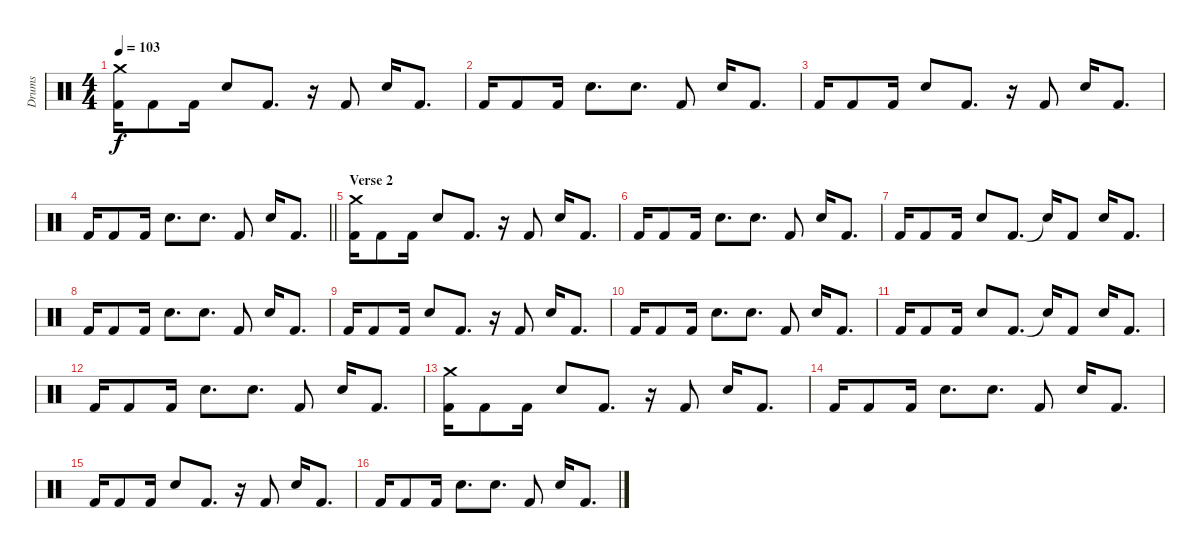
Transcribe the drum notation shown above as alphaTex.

\track ("Drums" "Drums") {instrument percussion}
\staff {score}
\articulation defaults
\ts (4 4)
\tempo 103
\clef neutral
\ks c
("Kick (hit) 2" "Crash medium (hit)").16{dy f} "Kick (hit) 2".8 "Kick (hit) 2".16 "Electric Snare (hit)".8 "Kick (hit) 2".8{d} r.16 "Kick (hit) 2".8 "Electric Snare (hit)".16 "Kick (hit) 2".8{d} |
"Kick (hit) 2".16 "Kick (hit) 2".8 "Kick (hit) 2".16 "Electric Snare (hit)".8{d} "Electric Snare (hit)".8{d} "Kick (hit) 2".8 "Electric Snare (hit)".16 "Kick (hit) 2".8{d} |
"Kick (hit) 2".16 "Kick (hit) 2".8 "Kick (hit) 2".16 "Electric Snare (hit)".8 "Kick (hit) 2".8{d} r.16 "Kick (hit) 2".8 "Electric Snare (hit)".16 "Kick (hit) 2".8{d} |
\barLineRight lightlight "Kick (hit) 2".16 "Kick (hit) 2".8 "Kick (hit) 2".16 "Electric Snare (hit)".8{d} "Electric Snare (hit)".8{d} "Kick (hit) 2".8 "Electric Snare (hit)".16 "Kick (hit) 2".8{d}
|
\section ("" "Verse 2")
("Kick (hit) 2" "Crash medium (hit)").16 "Kick (hit) 2".8 "Kick (hit) 2".16 "Electric Snare (hit)".8 "Kick (hit) 2".8{d} r.16 "Kick (hit) 2".8 "Electric Snare (hit)".16 "Kick (hit) 2".8{d} |
"Kick (hit) 2".16 "Kick (hit) 2".8 "Kick (hit) 2".16 "Electric Snare (hit)".8{d} "Electric Snare (hit)".8{d} "Kick (hit) 2".8 "Electric Snare (hit)".16 "Kick (hit) 2".8{d} |
"Kick (hit) 2".16 "Kick (hit) 2".8 "Kick (hit) 2".16 "Electric Snare (hit)".8 "Kick (hit) 2".8{d} "Snare (hit)"{t}.16 "Kick (hit) 2".8 "Electric Snare (hit)".16 "Kick (hit) 2".8{d} |
"Kick (hit) 2".16 "Kick (hit) 2".8 "Kick (hit) 2".16 "Electric Snare (hit)".8{d} "Electric Snare (hit)".8{d} "Kick (hit) 2".8 "Electric Snare (hit)".16 "Kick (hit) 2".8{d} |
"Kick (hit) 2".16 "Kick (hit) 2".8 "Kick (hit) 2".16 "Electric Snare (hit)".8 "Kick (hit) 2".8{d} r.16 "Kick (hit) 2".8 "Electric Snare (hit)".16 "Kick (hit) 2".8{d} |
"Kick (hit) 2".16 "Kick (hit) 2".8 "Kick (hit) 2".16 "Electric Snare (hit)".8{d} "Electric Snare (hit)".8{d} "Kick (hit) 2".8 "Electric Snare (hit)".16 "Kick (hit) 2".8{d} |
"Kick (hit) 2".16 "Kick (hit) 2".8 "Kick (hit) 2".16 "Electric Snare (hit)".8 "Kick (hit) 2".8{d} "Snare (hit)"{t}.16 "Kick (hit) 2".8 "Electric Snare (hit)".16 "Kick (hit) 2".8{d} |
"Kick (hit) 2".16 "Kick (hit) 2".8 "Kick (hit) 2".16 "Electric Snare (hit)".8{d} "Electric Snare (hit)".8{d} "Kick (hit) 2".8 "Electric Snare (hit)".16 "Kick (hit) 2".8{d} |
("Kick (hit) 2" "Crash medium (hit)").16 "Kick (hit) 2".8 "Kick (hit) 2".16 "Electric Snare (hit)".8 "Kick (hit) 2".8{d} r.16 "Kick (hit) 2".8 "Electric Snare (hit)".16 "Kick (hit) 2".8{d} |
"Kick (hit) 2".16 "Kick (hit) 2".8 "Kick (hit) 2".16 "Electric Snare (hit)".8{d} "Electric Snare (hit)".8{d} "Kick (hit) 2".8 "Electric Snare (hit)".16 "Kick (hit) 2".8{d} |
"Kick (hit) 2".16 "Kick (hit) 2".8 "Kick (hit) 2".16 "Electric Snare (hit)".8 "Kick (hit) 2".8{d} r.16 "Kick (hit) 2".8 "Electric Snare (hit)".16 "Kick (hit) 2".8{d} |
"Kick (hit) 2".16 "Kick (hit) 2".8 "Kick (hit) 2".16 "Electric Snare (hit)".8{d} "Electric Snare (hit)".8{d} "Kick (hit) 2".8 "Electric Snare (hit)".16 "Kick (hit) 2".8{d}
